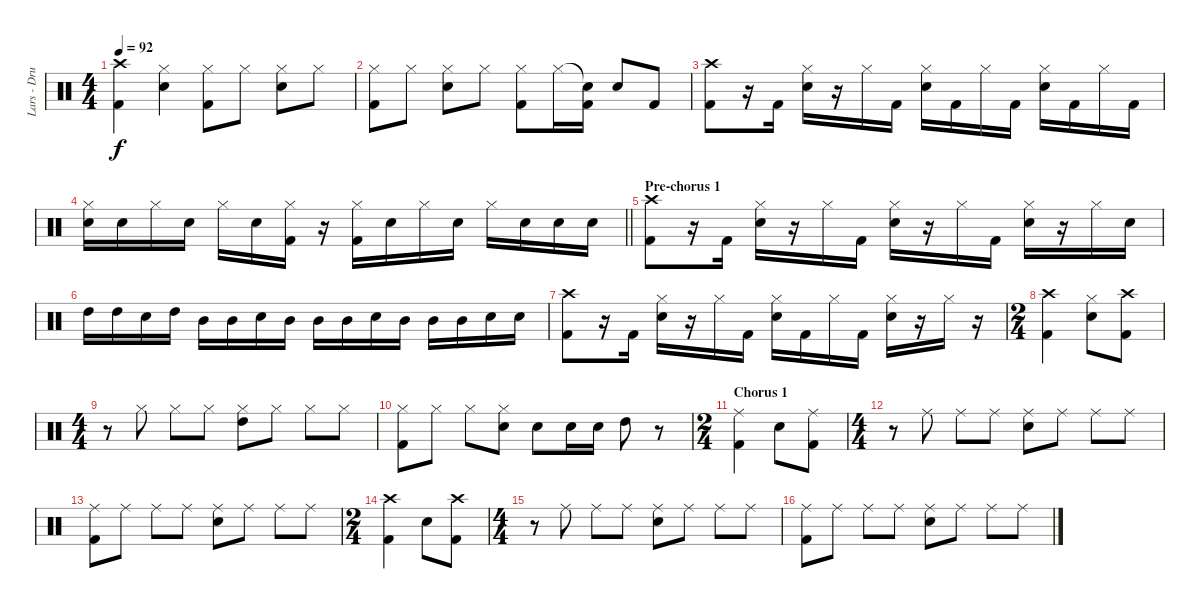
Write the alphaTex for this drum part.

\track ("Lars - Drums" "Lars - Dru") {instrument percussion}
\staff {score}
\articulation defaults
\ts (4 4)
\tempo 92
\clef neutral
\ks c
("Crash high (hit)" "Kick (hit) 2").4{dy f} ("Hi-Hat (closed)" "Electric Snare (hit)").4 ("Hi-Hat (closed)" "Kick (hit) 2").8 "Hi-Hat (closed)".8 ("Hi-Hat (closed)" "Electric Snare (hit)").8 "Hi-Hat (closed)".8 |
("Hi-Hat (closed)" "Kick (hit) 2").8 "Hi-Hat (closed)".8 ("Hi-Hat (closed)" "Electric Snare (hit)").8 "Hi-Hat (closed)".8 ("Hi-Hat (closed)" "Kick (hit) 2").8 "Hi-Hat (closed)".16 ("Snare (hit)"{t} "Kick (hit) 2").16 "Electric Snare (hit)".8 "Kick (hit) 2".8 |
("Crash high (hit)" "Kick (hit) 2").8 r.16 "Kick (hit) 2".16 ("Hi-Hat (closed)" "Electric Snare (hit)").16 r.16 "Hi-Hat (closed)".16 "Kick (hit) 2".16 ("Hi-Hat (closed)" "Electric Snare (hit)").16 "Kick (hit) 2".16 "Hi-Hat (closed)".16 "Kick (hit) 2".16 ("Hi-Hat (closed)" "Electric Snare (hit)").16 "Kick (hit) 2".16 "Hi-Hat (closed)".16 "Kick (hit) 2".16 |
\barLineRight lightlight
("Hi-Hat (closed)" "Electric Snare (hit)").16 "Electric Snare (hit)".16 "Hi-Hat (closed)".16 "Electric Snare (hit)".16 "Hi-Hat (closed)".16 "Electric Snare (hit)".16 ("Hi-Hat (closed)" "Kick (hit) 2").16 r.16 ("Hi-Hat (closed)" "Kick (hit) 2").16 "Electric Snare (hit)".16 "Hi-Hat (closed)".16 "Electric Snare (hit)".16 "Hi-Hat (closed)".16 "Electric Snare (hit)".16 "Electric Snare (hit)".16 "Electric Snare (hit)".16 |
\section ("" "Pre-chorus 1")
("Crash high (hit)" "Kick (hit) 2").8 r.16 "Kick (hit) 2".16 ("Hi-Hat (closed)" "Electric Snare (hit)").16 r.16 "Hi-Hat (closed)".16 "Kick (hit) 2".16 ("Hi-Hat (closed)" "Electric Snare (hit)").16 r.16 "Hi-Hat (closed)".16 "Kick (hit) 2".16 ("Hi-Hat (closed)" "Electric Snare (hit)").16 r.16 "Hi-Hat (closed)".16 "Electric Snare (hit)".16 |
"High Tom (hit)".16 "High Tom (hit)".16 "Electric Snare (hit)".16 "High Tom (hit)".16 "Mid Tom (hit)".16 "Mid Tom (hit)".16 "Electric Snare (hit)".16 "Mid Tom (hit)".16 "Mid Tom (hit)".16 "Mid Tom (hit)".16 "Electric Snare (hit)".16 "Mid Tom (hit)".16 "Mid Tom (hit)".16 "Mid Tom (hit)".16 "Electric Snare (hit)".16 "Electric Snare (hit)".16 |
("Crash high (hit)" "Kick (hit) 2").8 r.16 "Kick (hit) 2".16 ("Hi-Hat (closed)" "Electric Snare (hit)").16 r.16 "Hi-Hat (closed)".16 "Kick (hit) 2".16 ("Hi-Hat (closed)" "Electric Snare (hit)").16 "Kick (hit) 2".16 "Hi-Hat (closed)".16 "Kick (hit) 2".16 ("Hi-Hat (closed)" "Electric Snare (hit)").16 r.16 "Hi-Hat (closed)".16 r.16 |
\ts (2 4)
("Crash high (hit)" "Kick (hit) 2").4 ("Hi-Hat (closed)" "Electric Snare (hit)").8 ("Crash high (hit)" "Kick (hit) 2").8 |
\ts (4 4)
r.8 "Hi-Hat (closed)".8 "Hi-Hat (closed)".8 "Hi-Hat (closed)".8 ("Hi-Hat (closed)" "High Tom (hit)").8 "Hi-Hat (closed)".8 "Hi-Hat (closed)".8 "Hi-Hat (closed)".8 |
("Hi-Hat (closed)" "Kick (hit) 2").8 "Hi-Hat (closed)".8 "Hi-Hat (closed)".8 ("Hi-Hat (closed)" "Electric Snare (hit)").8 "Electric Snare (hit)".8 "Electric Snare (hit)".16 "Electric Snare (hit)".16 "High Tom (hit)".8 r.8 |
\ts (2 4)
\section ("" "Chorus 1")
("Ride (middle)" "Kick (hit) 2").4 "Electric Snare (hit)".8 ("Ride (middle)" "Kick (hit) 2").8 |
\ts (4 4)
r.8 "Ride (middle)".8 "Ride (middle)".8 "Ride (middle)".8 ("Ride (middle)" "Electric Snare (hit)").8 "Ride (middle)".8 "Ride (middle)".8 "Ride (middle)".8 |
("Ride (middle)" "Kick (hit) 2").8 "Ride (middle)".8 "Ride (middle)".8 "Ride (middle)".8 ("Ride (middle)" "Electric Snare (hit)").8 "Ride (middle)".8 "Ride (middle)".8 "Ride (middle)".8 |
\ts (2 4)
("Crash high (hit)" "Kick (hit) 2").4 "Electric Snare (hit)".8 ("Crash high (hit)" "Kick (hit) 2").8 |
\ts (4 4)
r.8 "Ride (middle)".8 "Ride (middle)".8 "Ride (middle)".8 ("Ride (middle)" "Electric Snare (hit)").8 "Ride (middle)".8 "Ride (middle)".8 "Ride (middle)".8 |
("Ride (middle)" "Kick (hit) 2").8 "Ride (middle)".8 "Ride (middle)".8 "Ride (middle)".8 ("Ride (middle)" "Electric Snare (hit)").8 "Ride (middle)".8 "Ride (middle)".8 "Ride (middle)".8
